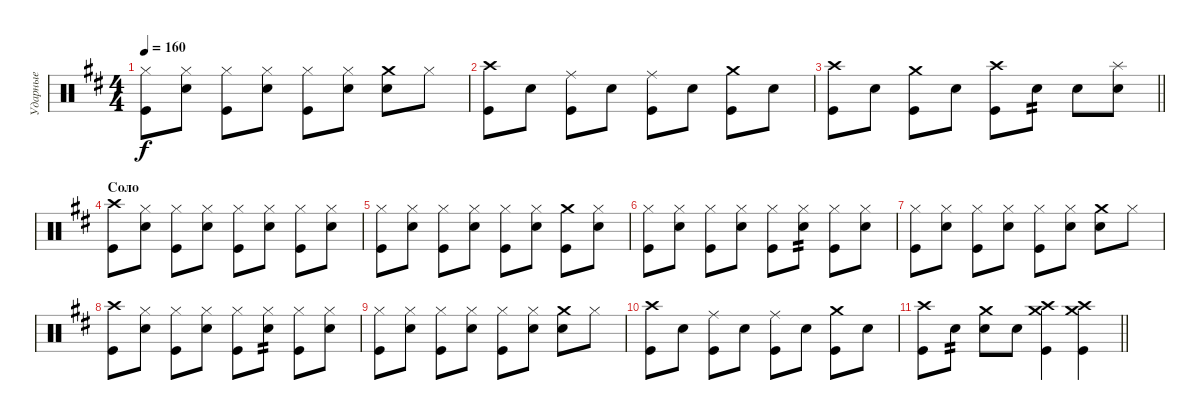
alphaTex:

\track ("Ударные" "Ударные") {instrument percussion}
\staff {score}
\articulation defaults
\ts (4 4)
\tempo 160
\clef neutral
\ks d
("Hi-Hat (closed)" "Kick (hit)").8{dy f} ("Hi-Hat (closed)" "Electric Snare (hit)").8 ("Hi-Hat (closed)" "Kick (hit)").8 ("Hi-Hat (closed)" "Electric Snare (hit)").8 ("Hi-Hat (closed)" "Kick (hit)").8 ("Hi-Hat (closed)" "Electric Snare (hit)").8 ("Crash medium (hit)" "Electric Snare (hit)").8 "Hi-Hat (closed)".8 |
("Crash high (hit)" "Kick (hit)").8 "Electric Snare (hit)".8 ("Ride (middle)" "Kick (hit)").8 "Electric Snare (hit)".8 ("Ride (middle)" "Kick (hit)").8 "Electric Snare (hit)".8 ("Crash medium (hit)" "Kick (hit)").8 "Electric Snare (hit)".8 |
\barLineRight lightlight
("Crash high (hit)" "Kick (hit)").8 "Electric Snare (hit)".8 ("Crash medium (hit)" "Kick (hit)").8 "Electric Snare (hit)".8 ("Crash high (hit)" "Kick (hit)").8 "Electric Snare (hit)".8{tp 2} "Electric Snare (hit)".8 ("Splash (hit)" "Electric Snare (hit)").8 |
\section ("" "Соло")
("Crash high (hit)" "Kick (hit)").8 ("Hi-Hat (closed)" "Electric Snare (hit)").8 ("Hi-Hat (closed)" "Kick (hit)").8 ("Hi-Hat (closed)" "Electric Snare (hit)").8 ("Hi-Hat (closed)" "Kick (hit)").8 ("Hi-Hat (closed)" "Electric Snare (hit)").8 ("Hi-Hat (closed)" "Kick (hit)").8 ("Hi-Hat (closed)" "Electric Snare (hit)").8 |
("Hi-Hat (closed)" "Kick (hit)").8 ("Hi-Hat (closed)" "Electric Snare (hit)").8 ("Hi-Hat (closed)" "Kick (hit)").8 ("Hi-Hat (closed)" "Electric Snare (hit)").8 ("Hi-Hat (closed)" "Kick (hit)").8 ("Hi-Hat (closed)" "Electric Snare (hit)").8 ("Crash medium (hit)" "Kick (hit)").8 ("Hi-Hat (closed)" "Electric Snare (hit)").8 |
("Hi-Hat (closed)" "Kick (hit)").8 ("Hi-Hat (closed)" "Electric Snare (hit)").8 ("Hi-Hat (closed)" "Kick (hit)").8 ("Hi-Hat (closed)" "Electric Snare (hit)").8 ("Hi-Hat (closed)" "Kick (hit)").8 ("Hi-Hat (closed)" "Electric Snare (hit)").8{tp 2} ("Hi-Hat (closed)" "Kick (hit)").8 ("Hi-Hat (closed)" "Electric Snare (hit)").8 |
("Hi-Hat (closed)" "Kick (hit)").8 ("Hi-Hat (closed)" "Electric Snare (hit)").8 ("Hi-Hat (closed)" "Kick (hit)").8 ("Hi-Hat (closed)" "Electric Snare (hit)").8 ("Hi-Hat (closed)" "Kick (hit)").8 ("Hi-Hat (closed)" "Electric Snare (hit)").8 ("Crash medium (hit)" "Electric Snare (hit)").8 "Hi-Hat (closed)".8 |
("Crash high (hit)" "Kick (hit)").8 ("Hi-Hat (closed)" "Electric Snare (hit)").8 ("Hi-Hat (closed)" "Kick (hit)").8 ("Hi-Hat (closed)" "Electric Snare (hit)").8 ("Hi-Hat (closed)" "Kick (hit)").8 ("Hi-Hat (closed)" "Electric Snare (hit)").8{tp 2} ("Hi-Hat (closed)" "Kick (hit)").8 ("Hi-Hat (closed)" "Electric Snare (hit)").8 |
("Hi-Hat (closed)" "Kick (hit)").8 ("Hi-Hat (closed)" "Electric Snare (hit)").8 ("Hi-Hat (closed)" "Kick (hit)").8 ("Hi-Hat (closed)" "Electric Snare (hit)").8 ("Hi-Hat (closed)" "Kick (hit)").8 ("Hi-Hat (closed)" "Electric Snare (hit)").8 ("Crash medium (hit)" "Electric Snare (hit)").8 "Hi-Hat (closed)".8 |
("Crash high (hit)" "Kick (hit)").8 "Electric Snare (hit)".8 ("Ride (middle)" "Kick (hit)").8 "Electric Snare (hit)".8 ("Ride (middle)" "Kick (hit)").8 "Electric Snare (hit)".8 ("Crash medium (hit)" "Kick (hit)").8 "Electric Snare (hit)".8 |
\barLineRight lightlight
("Crash high (hit)" "Kick (hit)").8 "Electric Snare (hit)".8{tp 2} ("Crash medium (hit)" "Electric Snare (hit)").8 "Electric Snare (hit)".8 ("Crash medium (hit)" "Crash high (hit)" "Kick (hit)").4 ("Crash medium (hit)" "Crash high (hit)" "Kick (hit)").4
